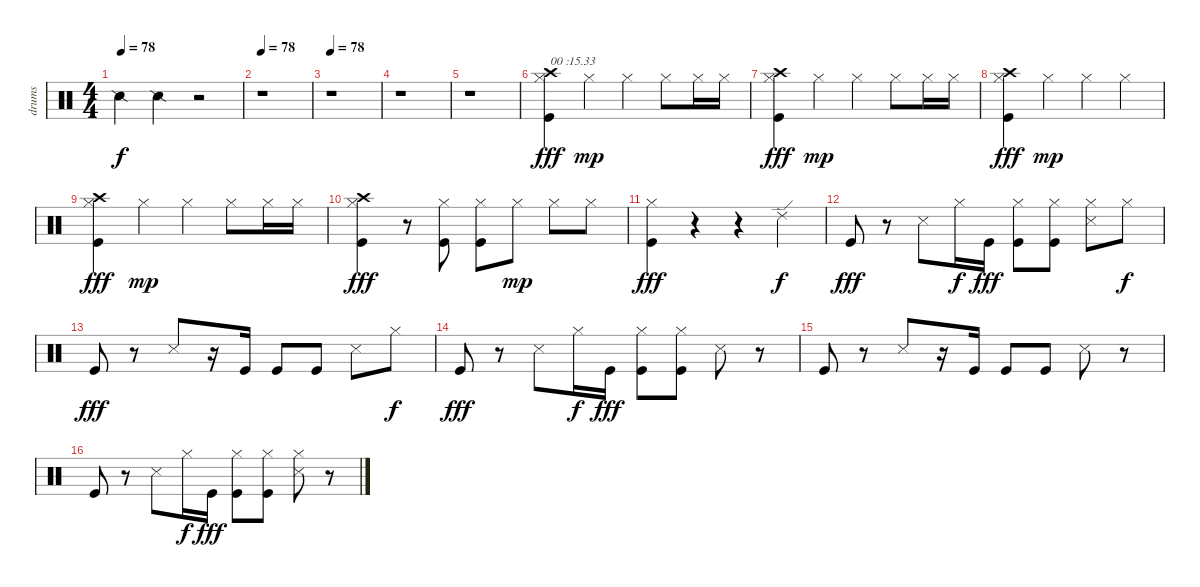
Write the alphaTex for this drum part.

\track ("drums" "drums") {instrument percussion}
\staff {score}
\articulation defaults
\ts (4 4)
\tempo 78
\clef neutral
\ks c "Snare (side stick) 2".4{dy f} "Snare (side stick) 2".4
r.2 |
\tempo 78
r.1{txt " "} |
\tempo 78
r.1{txt " "} |
r.1{txt " "} |
r.1{txt " "} |
("Crash high (hit)" "Hi-Hat (closed)" "Kick (hit)").4{txt "00 :15.33" dy fff} "Hi-Hat (closed)".4{dy mp} "Hi-Hat (closed)".4 "Hi-Hat (closed)".8 "Hi-Hat (closed)".16 "Hi-Hat (closed)".16 |
("Crash high (hit)" "Hi-Hat (closed)" "Kick (hit)").4{txt " " dy fff} "Hi-Hat (closed)".4{dy mp} "Hi-Hat (closed)".4 "Hi-Hat (closed)".8 "Hi-Hat (closed)".16 "Hi-Hat (closed)".16 |
("Crash high (hit)" "Hi-Hat (closed)" "Kick (hit)").4{txt " " dy fff} "Hi-Hat (closed)".4{dy mp} "Hi-Hat (closed)".4 "Hi-Hat (closed)".4 |
("Crash high (hit)" "Hi-Hat (closed)" "Kick (hit)").4{txt " " dy fff} "Hi-Hat (closed)".4{dy mp} "Hi-Hat (closed)".4 "Hi-Hat (closed)".8 "Hi-Hat (closed)".16 "Hi-Hat (closed)".16 |
("Crash high (hit)" "Hi-Hat (closed)" "Kick (hit)").4{txt " " dy fff} r.8 ("Hi-Hat (closed)" "Kick (hit)").8 ("Hi-Hat (closed)" "Kick (hit)").8 "Hi-Hat (closed)".8{dy mp} "Hi-Hat (closed)".8 "Hi-Hat (closed)".8 |
("Hi-Hat (closed)" "Kick (hit)").4{txt " " dy fff} r.4 r.4 "Ride (edge) 2".4{dy f} |
"Kick (hit)".8{txt " " dy fff} r.8 "Snare (side stick) 3".8 "Hi-Hat (closed)".16{dy f} "Kick (hit)".16{dy fff} ("Hi-Hat (closed)" "Kick (hit)").8 ("Hi-Hat (closed)" "Kick (hit)").8 ("Snare (side stick) 3" "Hi-Hat (closed)").8 "Hi-Hat (closed)".8{dy f} |
"Kick (hit)".8{txt " " dy fff} r.8 "Snare (side stick) 3".8 r.16 "Kick (hit)".16 "Kick (hit)".8 "Kick (hit)".8 "Snare (side stick) 3".8 "Hi-Hat (closed)".8{dy f} |
"Kick (hit)".8{txt " " dy fff} r.8 "Snare (side stick) 3".8 "Hi-Hat (closed)".16{dy f} "Kick (hit)".16{dy fff} ("Hi-Hat (closed)" "Kick (hit)").8 ("Hi-Hat (closed)" "Kick (hit)").8 "Snare (side stick) 3".8 r.8 |
"Kick (hit)".8{txt " "} r.8 "Snare (side stick) 3".8 r.16 "Kick (hit)".16 "Kick (hit)".8 "Kick (hit)".8 "Snare (side stick) 3".8 r.8 |
"Kick (hit)".8{txt " "} r.8 "Snare (side stick) 3".8 "Hi-Hat (closed)".16{dy f} "Kick (hit)".16{dy fff} ("Hi-Hat (closed)" "Kick (hit)").8 ("Hi-Hat (closed)" "Kick (hit)").8 ("Snare (side stick) 3" "Hi-Hat (closed)").8 r.8
